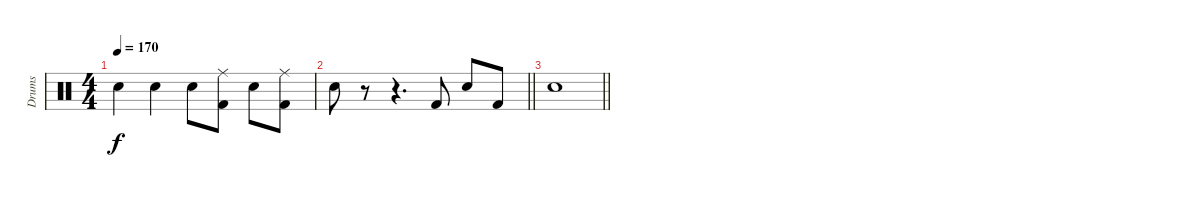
\track ("Drums" "Drums") {instrument percussion}
\staff {score}
\articulation defaults
\ts (4 4)
\tempo 170
\clef neutral
\ks c "Electric Snare (hit)".4{dy f} "Electric Snare (hit)".4 "Electric Snare (hit)".8
("Ride (middle)" "Kick (hit) 2").8 "Electric Snare (hit)".8 ("Ride (middle)" "Kick (hit) 2").8 |
\barLineRight lightlight "Electric Snare (hit)".8
r.8 r.4{d} "Kick (hit) 2".8 "Electric Snare (hit)".8 "Kick (hit) 2".8 |
\barLineRight lightlight "Electric Snare (hit)".1
